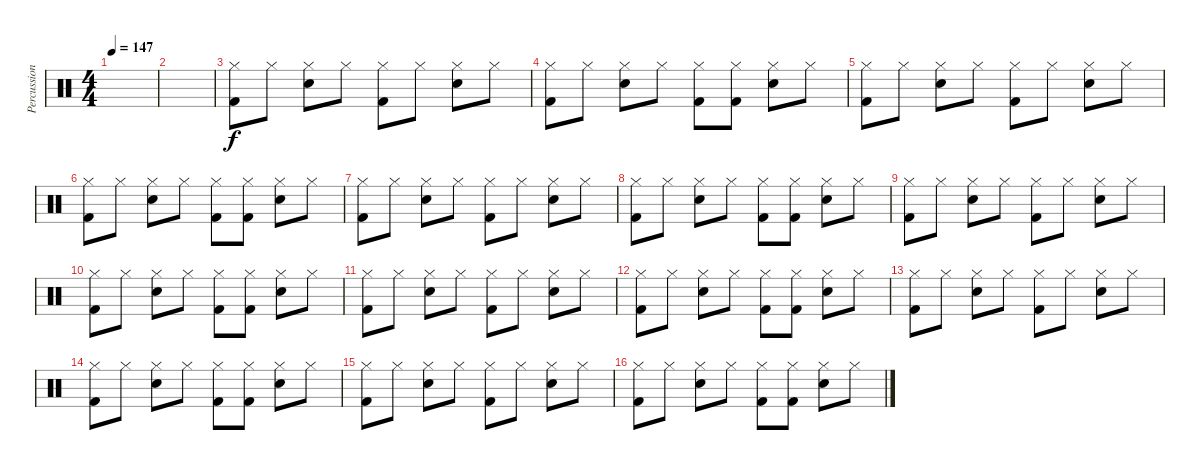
\track ("Percussions" "Percussion") {instrument percussion}
\staff {score}
\articulation defaults
\ts (4 4)
\tempo 147
\clef neutral
\ks c
|
|
("Kick (hit) 2" "Hi-Hat (closed)").8 "Hi-Hat (closed)".8 ("Electric Snare (hit)" "Hi-Hat (closed)").8 "Hi-Hat (closed)".8 ("Kick (hit) 2" "Hi-Hat (closed)").8 "Hi-Hat (closed)".8 ("Electric Snare (hit)" "Hi-Hat (closed)").8 "Hi-Hat (closed)".8 |
("Kick (hit) 2" "Hi-Hat (closed)").8 "Hi-Hat (closed)".8 ("Electric Snare (hit)" "Hi-Hat (closed)").8 "Hi-Hat (closed)".8 ("Kick (hit) 2" "Hi-Hat (closed)").8 ("Kick (hit) 2" "Hi-Hat (closed)").8 ("Electric Snare (hit)" "Hi-Hat (closed)").8 "Hi-Hat (closed)".8 |
("Kick (hit) 2" "Hi-Hat (closed)").8 "Hi-Hat (closed)".8 ("Electric Snare (hit)" "Hi-Hat (closed)").8 "Hi-Hat (closed)".8 ("Kick (hit) 2" "Hi-Hat (closed)").8 "Hi-Hat (closed)".8 ("Electric Snare (hit)" "Hi-Hat (closed)").8 "Hi-Hat (closed)".8 |
("Kick (hit) 2" "Hi-Hat (closed)").8 "Hi-Hat (closed)".8 ("Electric Snare (hit)" "Hi-Hat (closed)").8 "Hi-Hat (closed)".8 ("Kick (hit) 2" "Hi-Hat (closed)").8 ("Kick (hit) 2" "Hi-Hat (closed)").8 ("Electric Snare (hit)" "Hi-Hat (closed)").8 "Hi-Hat (closed)".8 |
("Kick (hit) 2" "Hi-Hat (closed)").8 "Hi-Hat (closed)".8 ("Electric Snare (hit)" "Hi-Hat (closed)").8 "Hi-Hat (closed)".8 ("Kick (hit) 2" "Hi-Hat (closed)").8 "Hi-Hat (closed)".8 ("Electric Snare (hit)" "Hi-Hat (closed)").8 "Hi-Hat (closed)".8 |
("Kick (hit) 2" "Hi-Hat (closed)").8 "Hi-Hat (closed)".8 ("Electric Snare (hit)" "Hi-Hat (closed)").8 "Hi-Hat (closed)".8 ("Kick (hit) 2" "Hi-Hat (closed)").8 ("Kick (hit) 2" "Hi-Hat (closed)").8 ("Electric Snare (hit)" "Hi-Hat (closed)").8 "Hi-Hat (closed)".8 |
("Kick (hit) 2" "Hi-Hat (closed)").8 "Hi-Hat (closed)".8 ("Electric Snare (hit)" "Hi-Hat (closed)").8 "Hi-Hat (closed)".8 ("Kick (hit) 2" "Hi-Hat (closed)").8 "Hi-Hat (closed)".8 ("Electric Snare (hit)" "Hi-Hat (closed)").8 "Hi-Hat (closed)".8 |
("Kick (hit) 2" "Hi-Hat (closed)").8 "Hi-Hat (closed)".8 ("Electric Snare (hit)" "Hi-Hat (closed)").8 "Hi-Hat (closed)".8 ("Kick (hit) 2" "Hi-Hat (closed)").8 ("Kick (hit) 2" "Hi-Hat (closed)").8 ("Electric Snare (hit)" "Hi-Hat (closed)").8 "Hi-Hat (closed)".8 |
("Kick (hit) 2" "Hi-Hat (closed)").8 "Hi-Hat (closed)".8 ("Electric Snare (hit)" "Hi-Hat (closed)").8 "Hi-Hat (closed)".8 ("Kick (hit) 2" "Hi-Hat (closed)").8 "Hi-Hat (closed)".8 ("Electric Snare (hit)" "Hi-Hat (closed)").8 "Hi-Hat (closed)".8 |
("Kick (hit) 2" "Hi-Hat (closed)").8 "Hi-Hat (closed)".8 ("Electric Snare (hit)" "Hi-Hat (closed)").8 "Hi-Hat (closed)".8 ("Kick (hit) 2" "Hi-Hat (closed)").8 ("Kick (hit) 2" "Hi-Hat (closed)").8 ("Electric Snare (hit)" "Hi-Hat (closed)").8 "Hi-Hat (closed)".8 |
("Kick (hit) 2" "Hi-Hat (closed)").8 "Hi-Hat (closed)".8 ("Electric Snare (hit)" "Hi-Hat (closed)").8 "Hi-Hat (closed)".8 ("Kick (hit) 2" "Hi-Hat (closed)").8 "Hi-Hat (closed)".8 ("Electric Snare (hit)" "Hi-Hat (closed)").8 "Hi-Hat (closed)".8 |
("Kick (hit) 2" "Hi-Hat (closed)").8 "Hi-Hat (closed)".8 ("Electric Snare (hit)" "Hi-Hat (closed)").8 "Hi-Hat (closed)".8 ("Kick (hit) 2" "Hi-Hat (closed)").8 ("Kick (hit) 2" "Hi-Hat (closed)").8 ("Electric Snare (hit)" "Hi-Hat (closed)").8 "Hi-Hat (closed)".8 |
("Kick (hit) 2" "Hi-Hat (closed)").8 "Hi-Hat (closed)".8 ("Electric Snare (hit)" "Hi-Hat (closed)").8 "Hi-Hat (closed)".8 ("Kick (hit) 2" "Hi-Hat (closed)").8 "Hi-Hat (closed)".8 ("Electric Snare (hit)" "Hi-Hat (closed)").8 "Hi-Hat (closed)".8 |
("Kick (hit) 2" "Hi-Hat (closed)").8 "Hi-Hat (closed)".8 ("Electric Snare (hit)" "Hi-Hat (closed)").8 "Hi-Hat (closed)".8 ("Kick (hit) 2" "Hi-Hat (closed)").8 ("Kick (hit) 2" "Hi-Hat (closed)").8 ("Electric Snare (hit)" "Hi-Hat (closed)").8 "Hi-Hat (closed)".8
